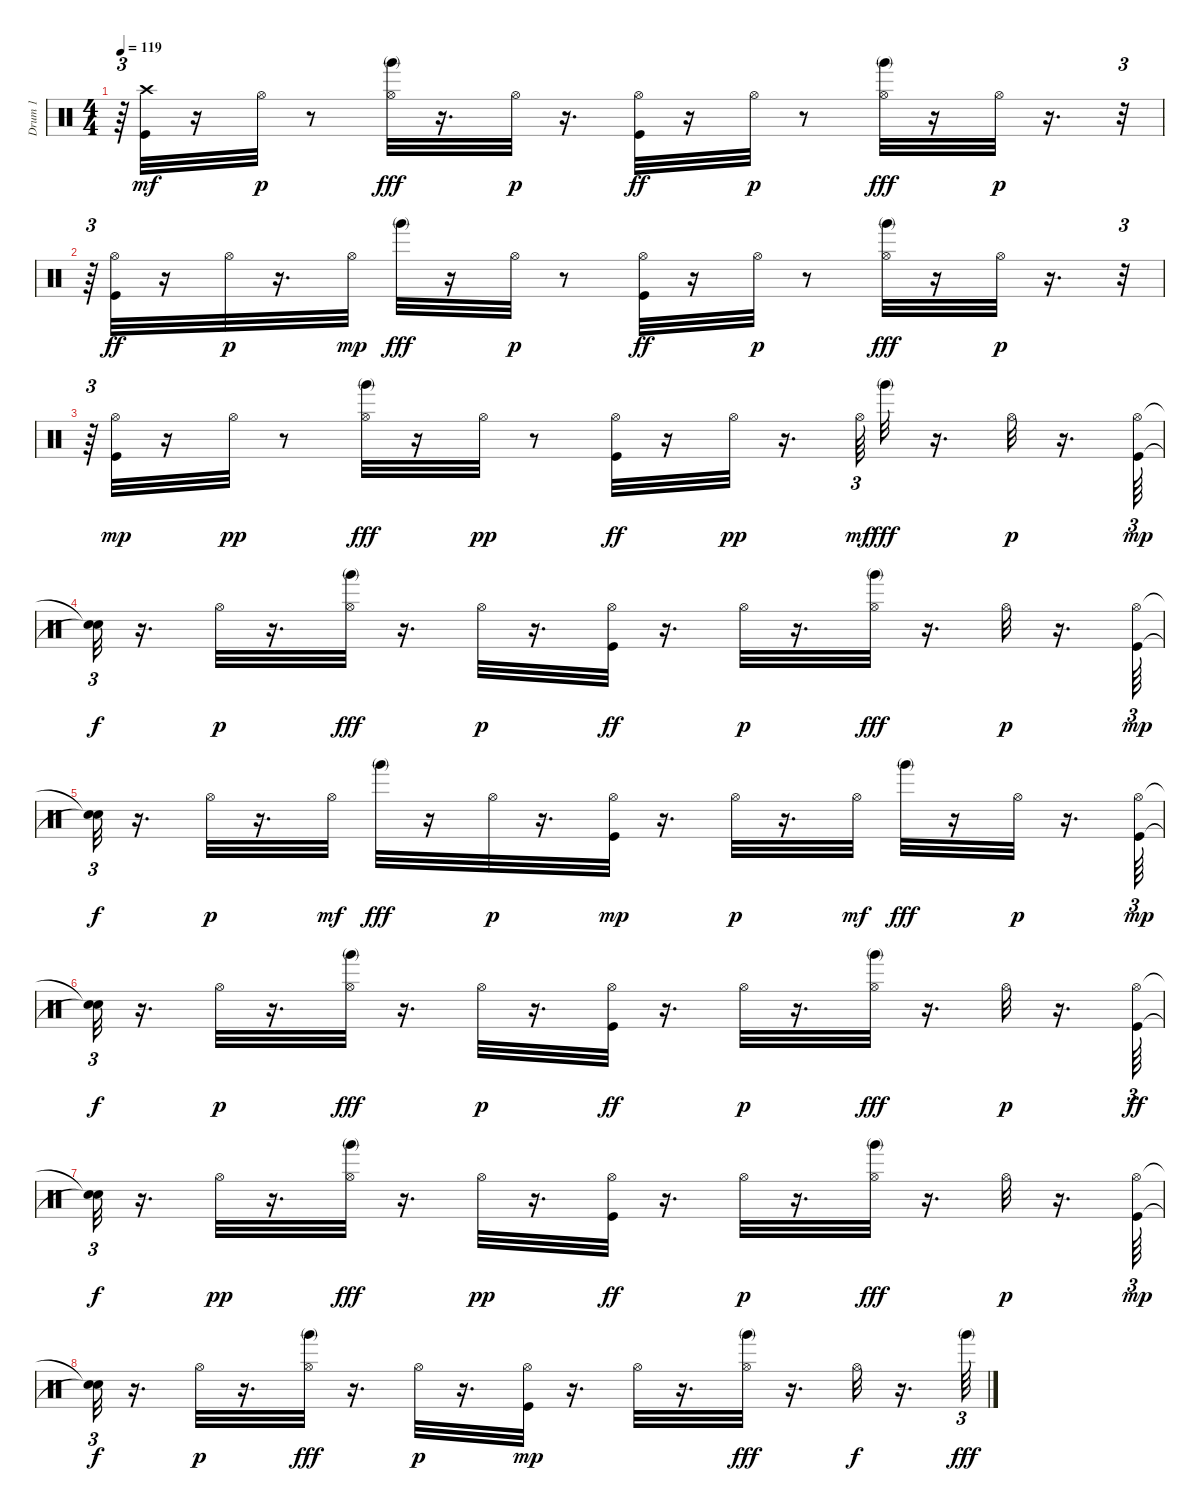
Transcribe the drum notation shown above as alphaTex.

\track ("Drum 1                          " "Drum 1    ") {instrument percussion}
\staff {score}
\articulation defaults
\ts (4 4)
\tempo 119
\clef neutral
\ks c
r.64{tu (3 2) dy f} ("Kick (hit)" "Crash high (hit)").32{dy mf} r.16 "Hi-Hat (open)".32{dy p} r.8 ("Hi-Hat (open)" "Hand (mute) 2").32{dy fff} r.16{d} "Hi-Hat (open)".32{dy p} r.16{d} ("Hi-Hat (open)" "Kick (hit)").32{dy ff} r.16 "Hi-Hat (open)".32{dy p} r.8 ("Hi-Hat (open)" "Hand (mute) 2").32{dy fff} r.16 "Hi-Hat (open)".32{dy p} r.16{d} r.32{tu (3 2)} |
r.64{tu (3 2)} ("Hi-Hat (open)" "Kick (hit)").32{dy ff} r.16 "Hi-Hat (open)".32{dy p} r.16{d} "Hi-Hat (open)".32{dy mp} "Hand (mute) 2".32{dy fff} r.16 "Hi-Hat (open)".32{dy p} r.8 ("Hi-Hat (open)" "Kick (hit)").32{dy ff} r.16 "Hi-Hat (open)".32{dy p} r.8 ("Hi-Hat (open)" "Hand (mute) 2").32{dy fff} r.16 "Hi-Hat (open)".32{dy p} r.16{d} r.32{tu (3 2)} |
r.64{tu (3 2)} ("Kick (hit)" "Hi-Hat (open)").32{dy mp} r.16 "Hi-Hat (open)".32{dy pp} r.8 ("Hi-Hat (open)" "Hand (mute) 2").32{dy fff} r.16 "Hi-Hat (open)".32{dy pp} r.8 ("Hi-Hat (open)" "Kick (hit)").32{dy ff} r.16 "Hi-Hat (open)".32{dy pp} r.16{d} "Hi-Hat (open)".64{tu (3 2) dy mf} "Hand (mute) 2".32{dy fff} r.16{d} "Hi-Hat (open)".32{dy p} r.16{d} ("Kick (hit)" "Hi-Hat (open)").64{tu (3 2) dy mp} |
("Snare (hit)"{t} "Snare (hit)"{t}).32{tu (3 2) dy f} r.16{d} "Hi-Hat (open)".32{dy p} r.16{d} ("Hi-Hat (open)" "Hand (mute) 2").32{dy fff} r.16{d} "Hi-Hat (open)".32{dy p} r.16{d} ("Hi-Hat (open)" "Kick (hit)").32{dy ff} r.16{d} "Hi-Hat (open)".32{dy p} r.16{d} ("Hi-Hat (open)" "Hand (mute) 2").32{dy fff} r.16{d} "Hi-Hat (open)".32{dy p} r.16{d} ("Kick (hit)" "Hi-Hat (open)").64{tu (3 2) dy mp} |
("Snare (hit)"{t} "Snare (hit)"{t}).32{tu (3 2) dy f} r.16{d} "Hi-Hat (open)".32{dy p} r.16{d} "Hi-Hat (open)".32{dy mf} "Hand (mute) 2".32{dy fff} r.16 "Hi-Hat (open)".32{dy p} r.16{d} ("Kick (hit)" "Hi-Hat (open)").32{dy mp} r.16{d} "Hi-Hat (open)".32{dy p} r.16{d} "Hi-Hat (open)".32{dy mf} "Hand (mute) 2".32{dy fff} r.16 "Hi-Hat (open)".32{dy p} r.16{d} ("Kick (hit)" "Hi-Hat (open)").64{tu (3 2) dy mp} |
("Snare (hit)"{t} "Snare (hit)"{t}).32{tu (3 2) dy f} r.16{d} "Hi-Hat (open)".32{dy p} r.16{d} ("Hi-Hat (open)" "Hand (mute) 2").32{dy fff} r.16{d} "Hi-Hat (open)".32{dy p} r.16{d} ("Hi-Hat (open)" "Kick (hit)").32{dy ff} r.16{d} "Hi-Hat (open)".32{dy p} r.16{d} ("Hi-Hat (open)" "Hand (mute) 2").32{dy fff} r.16{d} "Hi-Hat (open)".32{dy p} r.16{d} ("Hi-Hat (open)" "Kick (hit)").64{tu (3 2) dy ff} |
("Snare (hit)"{t} "Snare (hit)"{t}).32{tu (3 2) dy f} r.16{d} "Hi-Hat (open)".32{dy pp} r.16{d} ("Hi-Hat (open)" "Hand (mute) 2").32{dy fff} r.16{d} "Hi-Hat (open)".32{dy pp} r.16{d} ("Hi-Hat (open)" "Kick (hit)").32{dy ff} r.16{d} "Hi-Hat (open)".32{dy p} r.16{d} ("Hi-Hat (open)" "Hand (mute) 2").32{dy fff} r.16{d} "Hi-Hat (open)".32{dy p} r.16{d} ("Kick (hit)" "Hi-Hat (open)").64{tu (3 2) dy mp} |
("Snare (hit)"{t} "Snare (hit)"{t}).32{tu (3 2) dy f} r.16{d} "Hi-Hat (open)".32{dy p} r.16{d} ("Hi-Hat (open)" "Hand (mute) 2").32{dy fff} r.16{d} "Hi-Hat (open)".32{dy p} r.16{d} ("Kick (hit)" "Hi-Hat (open)").32{dy mp} r.16{d} "Hi-Hat (open)".32 r.16{d} ("Hi-Hat (open)" "Hand (mute) 2").32{dy fff} r.16{d} "Hi-Hat (open)".32{dy f} r.16{d} "Hand (mute) 2".64{tu (3 2) dy fff}
